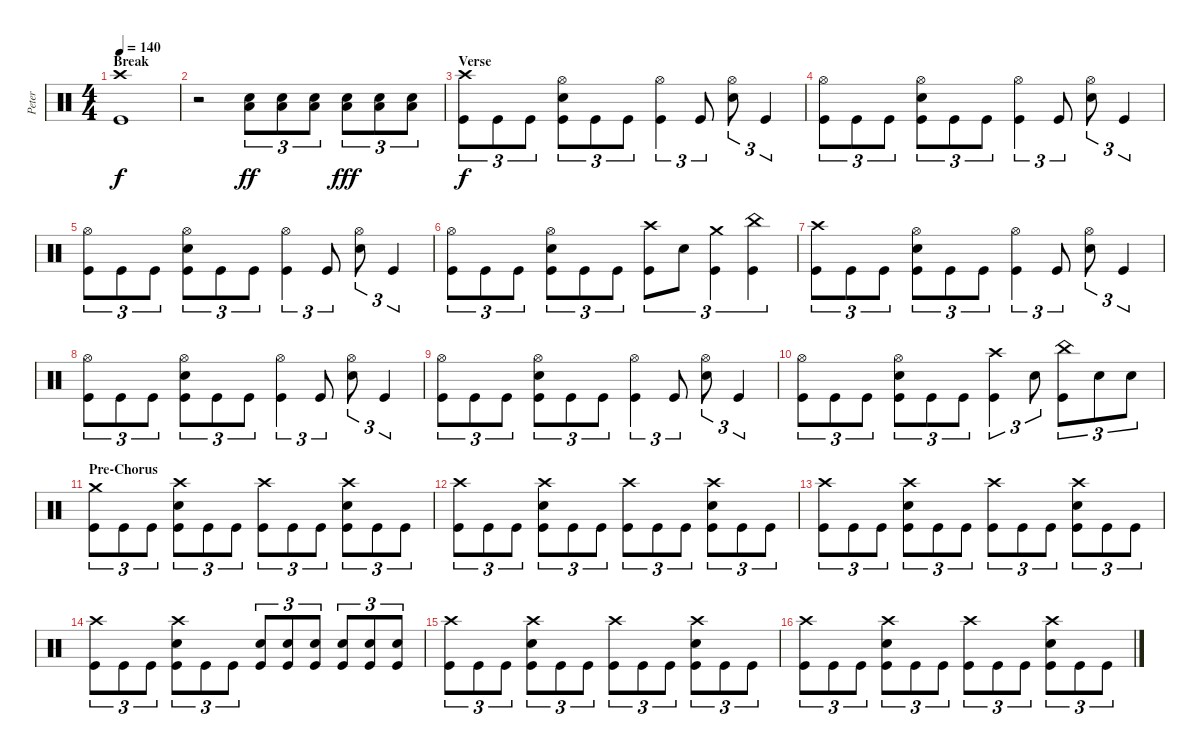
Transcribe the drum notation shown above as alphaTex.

\track ("Peter" "Peter") {instrument percussion}
\staff {score}
\articulation defaults
\ts (4 4)
\section ("" "Break")
\tempo 140
\clef neutral
\ks c
("Crash high (hit)" "Kick (hit)").1{dy f} |
r.2 ("Low Floor Tom (hit)" "Electric Snare (hit)").8{tu (3 2) dy ff} ("Low Floor Tom (hit)" "Electric Snare (hit)").8{tu (3 2)} ("Low Floor Tom (hit)" "Electric Snare (hit)").8{tu (3 2)} ("Low Floor Tom (hit)" "Electric Snare (hit)").8{tu (3 2) dy fff} ("Low Floor Tom (hit)" "Electric Snare (hit)").8{tu (3 2)} ("Low Floor Tom (hit)" "Electric Snare (hit)").8{tu (3 2)} |
\section ("" "Verse")
("Crash high (hit)" "Kick (hit)").8{tu (3 2) dy f} "Kick (hit)".8{tu (3 2)} "Kick (hit)".8{tu (3 2)} ("Hi-Hat (open)" "Electric Snare (hit)" "Kick (hit)").8{tu (3 2)} "Kick (hit)".8{tu (3 2)} "Kick (hit)".8{tu (3 2)} ("Hi-Hat (open)" "Kick (hit)").4{tu (3 2)} "Kick (hit)".8{tu (3 2)} ("Hi-Hat (open)" "Electric Snare (hit)").8{tu (3 2)} "Kick (hit)".4{tu (3 2)} |
("Hi-Hat (open)" "Kick (hit)").8{tu (3 2)} "Kick (hit)".8{tu (3 2)} "Kick (hit)".8{tu (3 2)} ("Hi-Hat (open)" "Electric Snare (hit)" "Kick (hit)").8{tu (3 2)} "Kick (hit)".8{tu (3 2)} "Kick (hit)".8{tu (3 2)} ("Hi-Hat (open)" "Kick (hit)").4{tu (3 2)} "Kick (hit)".8{tu (3 2)} ("Hi-Hat (open)" "Electric Snare (hit)").8{tu (3 2)} "Kick (hit)".4{tu (3 2)} |
("Hi-Hat (open)" "Kick (hit)").8{tu (3 2)} "Kick (hit)".8{tu (3 2)} "Kick (hit)".8{tu (3 2)} ("Hi-Hat (open)" "Electric Snare (hit)" "Kick (hit)").8{tu (3 2)} "Kick (hit)".8{tu (3 2)} "Kick (hit)".8{tu (3 2)} ("Hi-Hat (open)" "Kick (hit)").4{tu (3 2)} "Kick (hit)".8{tu (3 2)} ("Hi-Hat (open)" "Electric Snare (hit)").8{tu (3 2)} "Kick (hit)".4{tu (3 2)} |
("Hi-Hat (open)" "Kick (hit)").8{tu (3 2)} "Kick (hit)".8{tu (3 2)} "Kick (hit)".8{tu (3 2)} ("Hi-Hat (open)" "Electric Snare (hit)" "Kick (hit)").8{tu (3 2)} "Kick (hit)".8{tu (3 2)} "Kick (hit)".8{tu (3 2)} ("Crash high (hit)" "Kick (hit)").8{tu (3 2)} "Electric Snare (hit)".8{tu (3 2)} ("Crash medium (hit)" "Kick (hit)").4{tu (3 2)} ("China (hit)" "Kick (hit)").4{tu (3 2)} |
("Crash high (hit)" "Kick (hit)").8{tu (3 2)} "Kick (hit)".8{tu (3 2)} "Kick (hit)".8{tu (3 2)} ("Hi-Hat (open)" "Electric Snare (hit)" "Kick (hit)").8{tu (3 2)} "Kick (hit)".8{tu (3 2)} "Kick (hit)".8{tu (3 2)} ("Hi-Hat (open)" "Kick (hit)").4{tu (3 2)} "Kick (hit)".8{tu (3 2)} ("Hi-Hat (open)" "Electric Snare (hit)").8{tu (3 2)} "Kick (hit)".4{tu (3 2)} |
("Hi-Hat (open)" "Kick (hit)").8{tu (3 2)} "Kick (hit)".8{tu (3 2)} "Kick (hit)".8{tu (3 2)} ("Hi-Hat (open)" "Electric Snare (hit)" "Kick (hit)").8{tu (3 2)} "Kick (hit)".8{tu (3 2)} "Kick (hit)".8{tu (3 2)} ("Hi-Hat (open)" "Kick (hit)").4{tu (3 2)} "Kick (hit)".8{tu (3 2)} ("Hi-Hat (open)" "Electric Snare (hit)").8{tu (3 2)} "Kick (hit)".4{tu (3 2)} |
("Hi-Hat (open)" "Kick (hit)").8{tu (3 2)} "Kick (hit)".8{tu (3 2)} "Kick (hit)".8{tu (3 2)} ("Hi-Hat (open)" "Electric Snare (hit)" "Kick (hit)").8{tu (3 2)} "Kick (hit)".8{tu (3 2)} "Kick (hit)".8{tu (3 2)} ("Hi-Hat (open)" "Kick (hit)").4{tu (3 2)} "Kick (hit)".8{tu (3 2)} ("Hi-Hat (open)" "Electric Snare (hit)").8{tu (3 2)} "Kick (hit)".4{tu (3 2)} |
("Hi-Hat (open)" "Kick (hit)").8{tu (3 2)} "Kick (hit)".8{tu (3 2)} "Kick (hit)".8{tu (3 2)} ("Hi-Hat (open)" "Electric Snare (hit)" "Kick (hit)").8{tu (3 2)} "Kick (hit)".8{tu (3 2)} "Kick (hit)".8{tu (3 2)} ("Crash high (hit)" "Kick (hit)").4{tu (3 2)} "Electric Snare (hit)".8{tu (3 2)} ("China (hit)" "Kick (hit)").8{tu (3 2)} "Electric Snare (hit)".8{tu (3 2)} "Electric Snare (hit)".8{tu (3 2)} |
\section ("" "Pre-Chorus")
("Crash medium (hit)" "Kick (hit)").8{tu (3 2)} "Kick (hit)".8{tu (3 2)} "Kick (hit)".8{tu (3 2)} ("Crash high (hit)" "Electric Snare (hit)" "Kick (hit)").8{tu (3 2)} "Kick (hit)".8{tu (3 2)} "Kick (hit)".8{tu (3 2)} ("Crash high (hit)" "Kick (hit)").8{tu (3 2)} "Kick (hit)".8{tu (3 2)} "Kick (hit)".8{tu (3 2)} ("Crash high (hit)" "Electric Snare (hit)" "Kick (hit)").8{tu (3 2)} "Kick (hit)".8{tu (3 2)} "Kick (hit)".8{tu (3 2)} |
("Crash high (hit)" "Kick (hit)").8{tu (3 2)} "Kick (hit)".8{tu (3 2)} "Kick (hit)".8{tu (3 2)} ("Crash high (hit)" "Electric Snare (hit)" "Kick (hit)").8{tu (3 2)} "Kick (hit)".8{tu (3 2)} "Kick (hit)".8{tu (3 2)} ("Crash high (hit)" "Kick (hit)").8{tu (3 2)} "Kick (hit)".8{tu (3 2)} "Kick (hit)".8{tu (3 2)} ("Crash high (hit)" "Electric Snare (hit)" "Kick (hit)").8{tu (3 2)} "Kick (hit)".8{tu (3 2)} "Kick (hit)".8{tu (3 2)} |
("Crash high (hit)" "Kick (hit)").8{tu (3 2)} "Kick (hit)".8{tu (3 2)} "Kick (hit)".8{tu (3 2)} ("Crash high (hit)" "Electric Snare (hit)" "Kick (hit)").8{tu (3 2)} "Kick (hit)".8{tu (3 2)} "Kick (hit)".8{tu (3 2)} ("Crash high (hit)" "Kick (hit)").8{tu (3 2)} "Kick (hit)".8{tu (3 2)} "Kick (hit)".8{tu (3 2)} ("Crash high (hit)" "Electric Snare (hit)" "Kick (hit)").8{tu (3 2)} "Kick (hit)".8{tu (3 2)} "Kick (hit)".8{tu (3 2)} |
("Crash high (hit)" "Kick (hit)").8{tu (3 2)} "Kick (hit)".8{tu (3 2)} "Kick (hit)".8{tu (3 2)} ("Crash high (hit)" "Electric Snare (hit)" "Kick (hit)").8{tu (3 2)} "Kick (hit)".8{tu (3 2)} "Kick (hit)".8{tu (3 2)} ("Electric Snare (hit)" "Kick (hit)").8{tu (3 2)} ("Electric Snare (hit)" "Kick (hit)").8{tu (3 2)} ("Electric Snare (hit)" "Kick (hit)").8{tu (3 2)} ("Electric Snare (hit)" "Kick (hit)").8{tu (3 2)} ("Electric Snare (hit)" "Kick (hit)").8{tu (3 2)} ("Electric Snare (hit)" "Kick (hit)").8{tu (3 2)} |
("Crash high (hit)" "Kick (hit)").8{tu (3 2)} "Kick (hit)".8{tu (3 2)} "Kick (hit)".8{tu (3 2)} ("Crash high (hit)" "Electric Snare (hit)" "Kick (hit)").8{tu (3 2)} "Kick (hit)".8{tu (3 2)} "Kick (hit)".8{tu (3 2)} ("Crash high (hit)" "Kick (hit)").8{tu (3 2)} "Kick (hit)".8{tu (3 2)} "Kick (hit)".8{tu (3 2)} ("Crash high (hit)" "Electric Snare (hit)" "Kick (hit)").8{tu (3 2)} "Kick (hit)".8{tu (3 2)} "Kick (hit)".8{tu (3 2)} |
("Crash high (hit)" "Kick (hit)").8{tu (3 2)} "Kick (hit)".8{tu (3 2)} "Kick (hit)".8{tu (3 2)} ("Crash high (hit)" "Electric Snare (hit)" "Kick (hit)").8{tu (3 2)} "Kick (hit)".8{tu (3 2)} "Kick (hit)".8{tu (3 2)} ("Crash high (hit)" "Kick (hit)").8{tu (3 2)} "Kick (hit)".8{tu (3 2)} "Kick (hit)".8{tu (3 2)} ("Crash high (hit)" "Electric Snare (hit)" "Kick (hit)").8{tu (3 2)} "Kick (hit)".8{tu (3 2)} "Kick (hit)".8{tu (3 2)}
